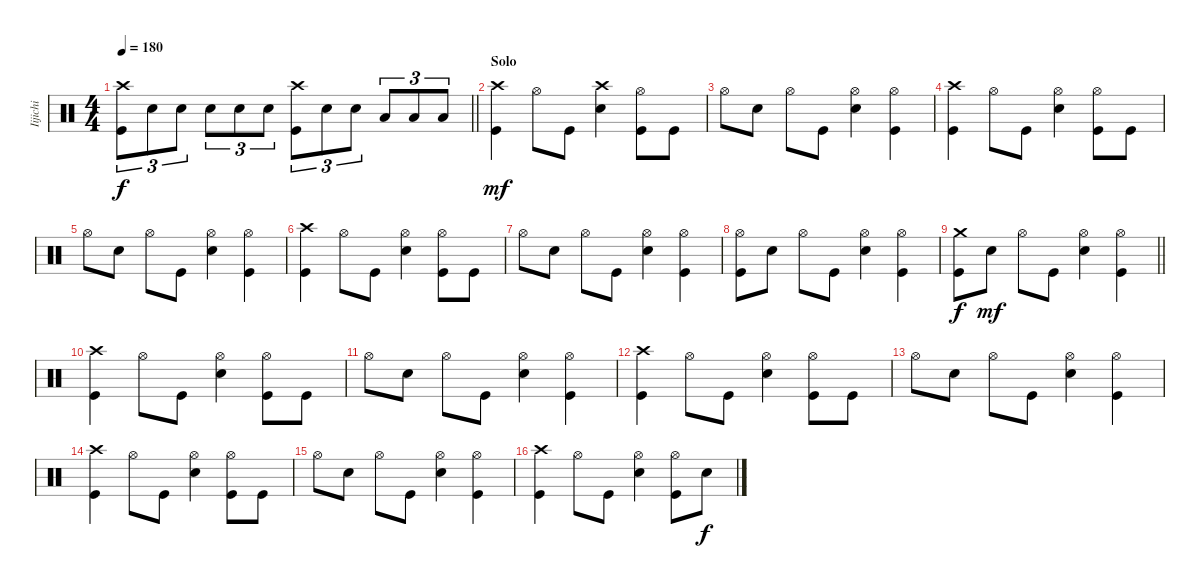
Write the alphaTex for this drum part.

\track ("Iijichi" "Iijichi") {instrument percussion}
\staff {score}
\articulation defaults
\ts (4 4)
\tempo 180
\clef neutral
\barLineRight lightlight
\ks c
("Kick (hit)" "Crash high (hit)").8{tu (3 2) dy f} "Electric Snare (hit)".8{tu (3 2)} "Electric Snare (hit)".8{tu (3 2)} "Electric Snare (hit)".8{tu (3 2)} "Electric Snare (hit)".8{tu (3 2)} "Electric Snare (hit)".8{tu (3 2)} ("Kick (hit)" "Crash high (hit)").8{tu (3 2)} "Electric Snare (hit)".8{tu (3 2)} "Electric Snare (hit)".8{tu (3 2)} "Low Tom (hit)".8{tu (3 2)} "Low Floor Tom (hit)".8{tu (3 2)} "Low Floor Tom (hit)".8{tu (3 2)} |
\section ("" "Solo")
("Crash high (hit)" "Kick (hit)").4{dy mf} "Hi-Hat (open)".8 "Kick (hit)".8 ("Crash high (hit)" "Electric Snare (hit)").4 ("Hi-Hat (open)" "Kick (hit)").8 "Kick (hit)".8 |
"Hi-Hat (open)".8 "Electric Snare (hit)".8 "Hi-Hat (open)".8 "Kick (hit)".8 ("Hi-Hat (open)" "Electric Snare (hit)").4 ("Hi-Hat (open)" "Kick (hit)").4 |
("Crash high (hit)" "Kick (hit)").4 "Hi-Hat (open)".8 "Kick (hit)".8 ("Hi-Hat (open)" "Electric Snare (hit)").4 ("Hi-Hat (open)" "Kick (hit)").8 "Kick (hit)".8 |
"Hi-Hat (open)".8 "Electric Snare (hit)".8 "Hi-Hat (open)".8 "Kick (hit)".8 ("Hi-Hat (open)" "Electric Snare (hit)").4 ("Hi-Hat (open)" "Kick (hit)").4 |
("Crash high (hit)" "Kick (hit)").4 "Hi-Hat (open)".8 "Kick (hit)".8 ("Hi-Hat (open)" "Electric Snare (hit)").4 ("Hi-Hat (open)" "Kick (hit)").8 "Kick (hit)".8 |
"Hi-Hat (open)".8 "Electric Snare (hit)".8 "Hi-Hat (open)".8 "Kick (hit)".8 ("Hi-Hat (open)" "Electric Snare (hit)").4 ("Hi-Hat (open)" "Kick (hit)").4 |
("Hi-Hat (open)" "Kick (hit)").8 "Electric Snare (hit)".8 "Hi-Hat (open)".8 "Kick (hit)".8 ("Hi-Hat (open)" "Electric Snare (hit)").4 ("Hi-Hat (open)" "Kick (hit)").4 |
\barLineRight lightlight
("Crash medium (hit)" "Kick (hit)").8{dy f} "Electric Snare (hit)".8{dy mf} "Hi-Hat (open)".8 "Kick (hit)".8 ("Hi-Hat (open)" "Electric Snare (hit)").4 ("Hi-Hat (open)" "Kick (hit)").4 |
("Crash high (hit)" "Kick (hit)").4 "Hi-Hat (open)".8 "Kick (hit)".8 ("Hi-Hat (open)" "Electric Snare (hit)").4 ("Hi-Hat (open)" "Kick (hit)").8 "Kick (hit)".8 |
"Hi-Hat (open)".8 "Electric Snare (hit)".8 "Hi-Hat (open)".8 "Kick (hit)".8 ("Hi-Hat (open)" "Electric Snare (hit)").4 ("Hi-Hat (open)" "Kick (hit)").4 |
("Crash high (hit)" "Kick (hit)").4 "Hi-Hat (open)".8 "Kick (hit)".8 ("Hi-Hat (open)" "Electric Snare (hit)").4 ("Hi-Hat (open)" "Kick (hit)").8 "Kick (hit)".8 |
"Hi-Hat (open)".8 "Electric Snare (hit)".8 "Hi-Hat (open)".8 "Kick (hit)".8 ("Hi-Hat (open)" "Electric Snare (hit)").4 ("Hi-Hat (open)" "Kick (hit)").4 |
("Crash high (hit)" "Kick (hit)").4 "Hi-Hat (open)".8 "Kick (hit)".8 ("Hi-Hat (open)" "Electric Snare (hit)").4 ("Hi-Hat (open)" "Kick (hit)").8 "Kick (hit)".8 |
"Hi-Hat (open)".8 "Electric Snare (hit)".8 "Hi-Hat (open)".8 "Kick (hit)".8 ("Hi-Hat (open)" "Electric Snare (hit)").4 ("Hi-Hat (open)" "Kick (hit)").4 |
("Crash high (hit)" "Kick (hit)").4 "Hi-Hat (open)".8 "Kick (hit)".8 ("Hi-Hat (open)" "Electric Snare (hit)").4 ("Hi-Hat (open)" "Kick (hit)").8 "Electric Snare (hit)".8{dy f}
